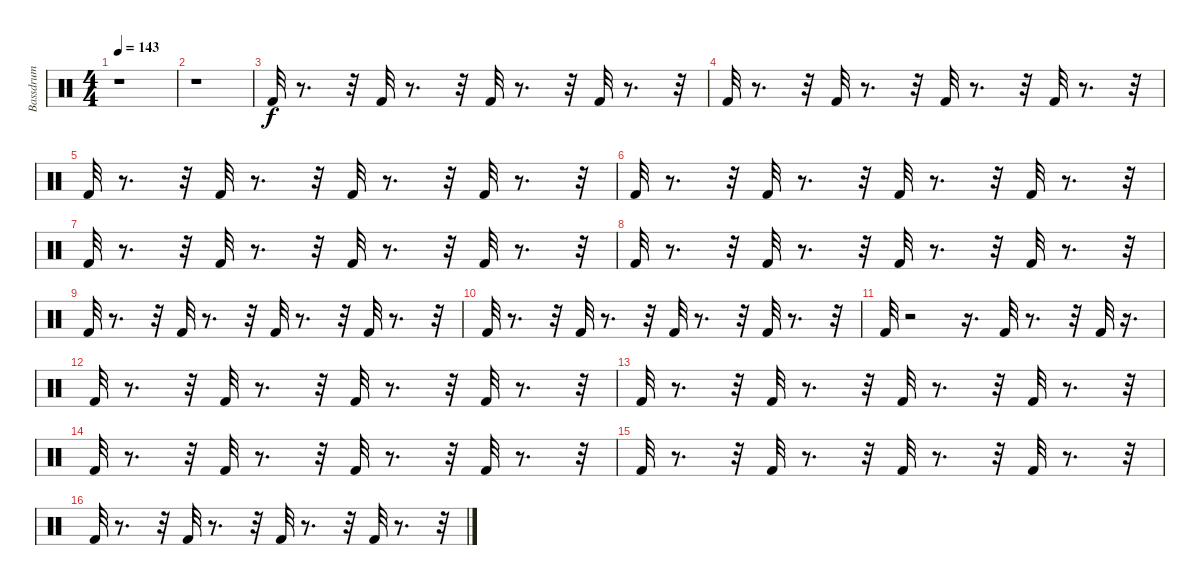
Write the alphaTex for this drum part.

\track ("Bassdrum " "Bassdrum ") {instrument percussion}
\staff {score}
\articulation defaults
\ts (4 4)
\tempo 143
\clef neutral
\ks c
r.1{dy f} |
r.1 |
"Kick (hit) 2".32 r.8{d} r.32 "Kick (hit) 2".32 r.8{d} r.32 "Kick (hit) 2".32 r.8{d} r.32 "Kick (hit) 2".32 r.8{d} r.32 |
"Kick (hit) 2".32 r.8{d} r.32 "Kick (hit) 2".32 r.8{d} r.32 "Kick (hit) 2".32 r.8{d} r.32 "Kick (hit) 2".32 r.8{d} r.32 |
"Kick (hit) 2".32 r.8{d} r.32 "Kick (hit) 2".32 r.8{d} r.32 "Kick (hit) 2".32 r.8{d} r.32 "Kick (hit) 2".32 r.8{d} r.32 |
"Kick (hit) 2".32 r.8{d} r.32 "Kick (hit) 2".32 r.8{d} r.32 "Kick (hit) 2".32 r.8{d} r.32 "Kick (hit) 2".32 r.8{d} r.32 |
"Kick (hit) 2".32 r.8{d} r.32 "Kick (hit) 2".32 r.8{d} r.32 "Kick (hit) 2".32 r.8{d} r.32 "Kick (hit) 2".32 r.8{d} r.32 |
"Kick (hit) 2".32 r.8{d} r.32 "Kick (hit) 2".32 r.8{d} r.32 "Kick (hit) 2".32 r.8{d} r.32 "Kick (hit) 2".32 r.8{d} r.32 |
"Kick (hit) 2".32 r.8{d} r.32 "Kick (hit) 2".32 r.8{d} r.32 "Kick (hit) 2".32 r.8{d} r.32 "Kick (hit) 2".32 r.8{d} r.32 |
"Kick (hit) 2".32 r.8{d} r.32 "Kick (hit) 2".32 r.8{d} r.32 "Kick (hit) 2".32 r.8{d} r.32 "Kick (hit) 2".32 r.8{d} r.32 |
"Kick (hit) 2".32 r.2 r.16{d} "Kick (hit) 2".32 r.8{d} r.32 "Kick (hit) 2".32 r.16{d} |
"Kick (hit) 2".32 r.8{d} r.32 "Kick (hit) 2".32 r.8{d} r.32 "Kick (hit) 2".32 r.8{d} r.32 "Kick (hit) 2".32 r.8{d} r.32 |
"Kick (hit) 2".32 r.8{d} r.32 "Kick (hit) 2".32 r.8{d} r.32 "Kick (hit) 2".32 r.8{d} r.32 "Kick (hit) 2".32 r.8{d} r.32 |
"Kick (hit) 2".32 r.8{d} r.32 "Kick (hit) 2".32 r.8{d} r.32 "Kick (hit) 2".32 r.8{d} r.32 "Kick (hit) 2".32 r.8{d} r.32 |
"Kick (hit) 2".32 r.8{d} r.32 "Kick (hit) 2".32 r.8{d} r.32 "Kick (hit) 2".32 r.8{d} r.32 "Kick (hit) 2".32 r.8{d} r.32 |
"Kick (hit) 2".32 r.8{d} r.32 "Kick (hit) 2".32 r.8{d} r.32 "Kick (hit) 2".32 r.8{d} r.32 "Kick (hit) 2".32 r.8{d} r.32
